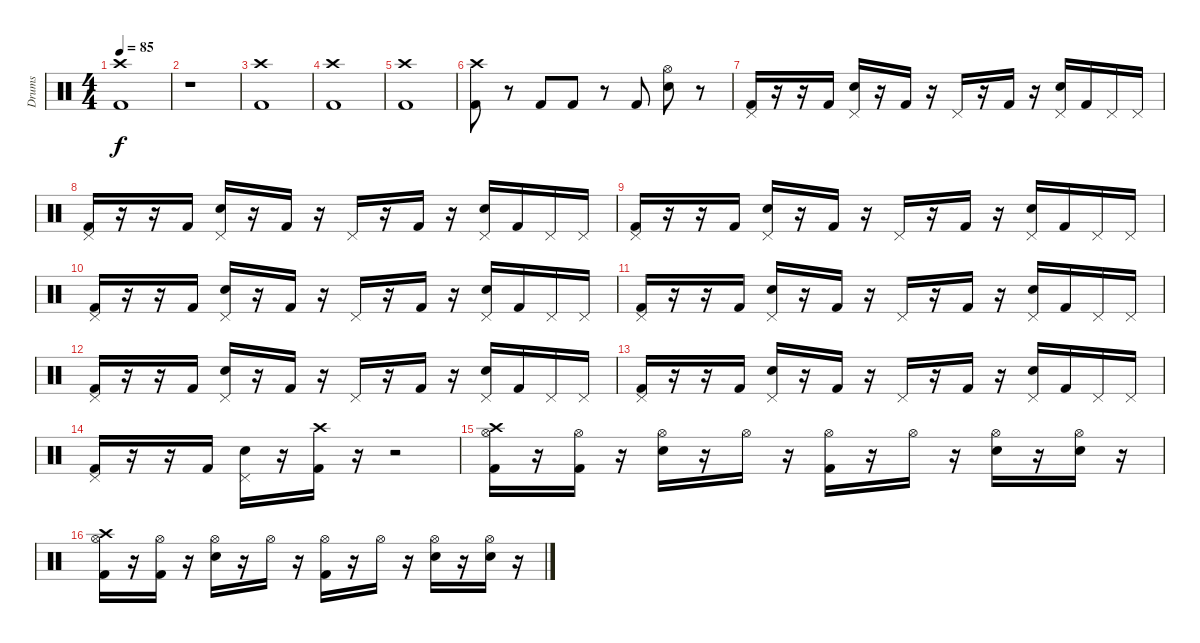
\track ("Drums" "Drums") {instrument percussion}
\staff {score}
\articulation defaults
\ts (4 4)
\tempo 85
\clef neutral
\ks c
("Kick (hit) 2" "Crash high (hit)").1{dy f} |
r.1 |
("Kick (hit) 2" "Crash high (hit)").1 |
("Kick (hit) 2" "Crash high (hit)").1 |
("Kick (hit) 2" "Crash high (hit)").1 |
("Kick (hit) 2" "Crash high (hit)").8 r.8 "Kick (hit) 2".8 "Kick (hit) 2".8 r.8 "Kick (hit) 2".8 ("Electric Snare (hit)" "Hi-Hat (open)").8 r.8 |
("Kick (hit) 2" "Pedal Hi-Hat (hit)").16 r.16 r.16 "Kick (hit) 2".16 ("Electric Snare (hit)" "Pedal Hi-Hat (hit)").16 r.16 "Kick (hit) 2".16 r.16 "Pedal Hi-Hat (hit)".16 r.16 "Kick (hit) 2".16 r.16 ("Electric Snare (hit)" "Pedal Hi-Hat (hit)").16 "Kick (hit) 2".16 "Pedal Hi-Hat (hit)".16 "Pedal Hi-Hat (hit)".16 |
("Kick (hit) 2" "Pedal Hi-Hat (hit)").16 r.16 r.16 "Kick (hit) 2".16 ("Electric Snare (hit)" "Pedal Hi-Hat (hit)").16 r.16 "Kick (hit) 2".16 r.16 "Pedal Hi-Hat (hit)".16 r.16 "Kick (hit) 2".16 r.16 ("Electric Snare (hit)" "Pedal Hi-Hat (hit)").16 "Kick (hit) 2".16 "Pedal Hi-Hat (hit)".16 "Pedal Hi-Hat (hit)".16 |
("Kick (hit) 2" "Pedal Hi-Hat (hit)").16 r.16 r.16 "Kick (hit) 2".16 ("Electric Snare (hit)" "Pedal Hi-Hat (hit)").16 r.16 "Kick (hit) 2".16 r.16 "Pedal Hi-Hat (hit)".16 r.16 "Kick (hit) 2".16 r.16 ("Electric Snare (hit)" "Pedal Hi-Hat (hit)").16 "Kick (hit) 2".16 "Pedal Hi-Hat (hit)".16 "Pedal Hi-Hat (hit)".16 |
("Kick (hit) 2" "Pedal Hi-Hat (hit)").16 r.16 r.16 "Kick (hit) 2".16 ("Electric Snare (hit)" "Pedal Hi-Hat (hit)").16 r.16 "Kick (hit) 2".16 r.16 "Pedal Hi-Hat (hit)".16 r.16 "Kick (hit) 2".16 r.16 ("Electric Snare (hit)" "Pedal Hi-Hat (hit)").16 "Kick (hit) 2".16 "Pedal Hi-Hat (hit)".16 "Pedal Hi-Hat (hit)".16 |
("Kick (hit) 2" "Pedal Hi-Hat (hit)").16 r.16 r.16 "Kick (hit) 2".16 ("Electric Snare (hit)" "Pedal Hi-Hat (hit)").16 r.16 "Kick (hit) 2".16 r.16 "Pedal Hi-Hat (hit)".16 r.16 "Kick (hit) 2".16 r.16 ("Electric Snare (hit)" "Pedal Hi-Hat (hit)").16 "Kick (hit) 2".16 "Pedal Hi-Hat (hit)".16 "Pedal Hi-Hat (hit)".16 |
("Kick (hit) 2" "Pedal Hi-Hat (hit)").16 r.16 r.16 "Kick (hit) 2".16 ("Electric Snare (hit)" "Pedal Hi-Hat (hit)").16 r.16 "Kick (hit) 2".16 r.16 "Pedal Hi-Hat (hit)".16 r.16 "Kick (hit) 2".16 r.16 ("Electric Snare (hit)" "Pedal Hi-Hat (hit)").16 "Kick (hit) 2".16 "Pedal Hi-Hat (hit)".16 "Pedal Hi-Hat (hit)".16 |
("Kick (hit) 2" "Pedal Hi-Hat (hit)").16 r.16 r.16 "Kick (hit) 2".16 ("Electric Snare (hit)" "Pedal Hi-Hat (hit)").16 r.16 "Kick (hit) 2".16 r.16 "Pedal Hi-Hat (hit)".16 r.16 "Kick (hit) 2".16 r.16 ("Electric Snare (hit)" "Pedal Hi-Hat (hit)").16 "Kick (hit) 2".16 "Pedal Hi-Hat (hit)".16 "Pedal Hi-Hat (hit)".16 |
("Kick (hit) 2" "Pedal Hi-Hat (hit)").16 r.16 r.16 "Kick (hit) 2".16 ("Electric Snare (hit)" "Pedal Hi-Hat (hit)").16 r.16 ("Kick (hit) 2" "Crash high (hit)").16 r.16 r.2 |
("Hi-Hat (open)" "Kick (hit) 2" "Crash high (hit)").16 r.16 ("Hi-Hat (open)" "Kick (hit) 2").16 r.16 ("Hi-Hat (open)" "Electric Snare (hit)").16 r.16 "Hi-Hat (open)".16 r.16 ("Hi-Hat (open)" "Kick (hit) 2").16 r.16 "Hi-Hat (open)".16 r.16 ("Hi-Hat (open)" "Electric Snare (hit)").16 r.16 ("Hi-Hat (open)" "Electric Snare (hit)").16 r.16 |
("Hi-Hat (open)" "Kick (hit) 2" "Crash high (hit)").16 r.16 ("Hi-Hat (open)" "Kick (hit) 2").16 r.16 ("Hi-Hat (open)" "Electric Snare (hit)").16 r.16 "Hi-Hat (open)".16 r.16 ("Hi-Hat (open)" "Kick (hit) 2").16 r.16 "Hi-Hat (open)".16 r.16 ("Hi-Hat (open)" "Electric Snare (hit)").16 r.16 ("Hi-Hat (open)" "Electric Snare (hit)").16 r.16
